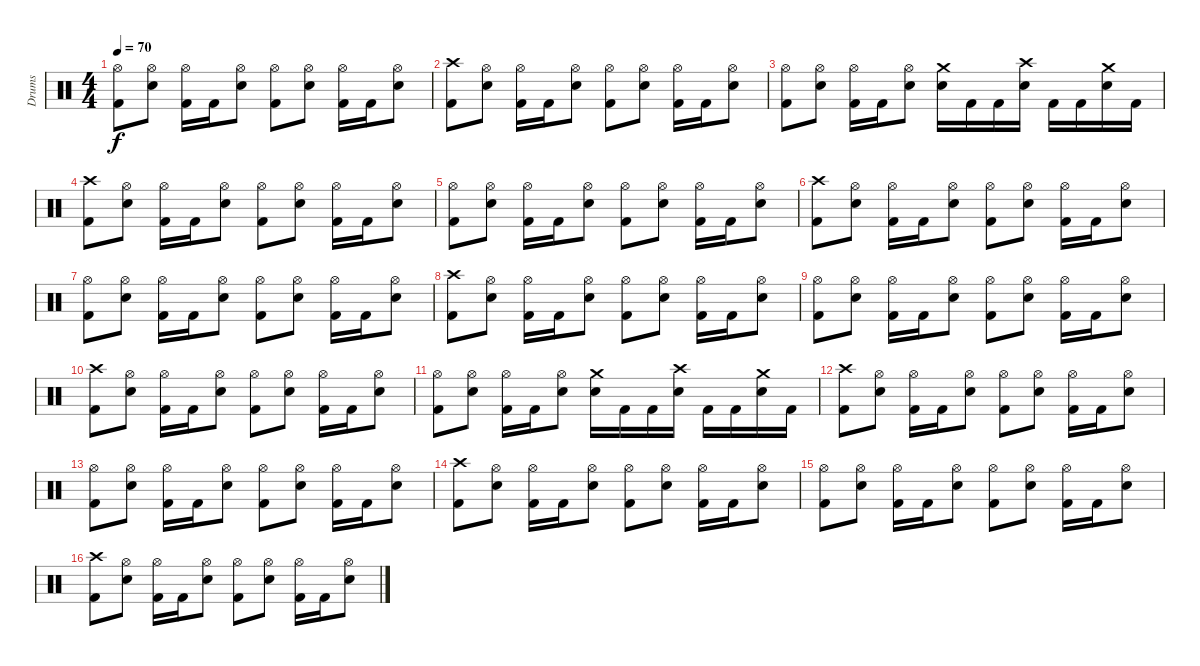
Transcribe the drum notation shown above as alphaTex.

\track ("Drums" "Drums") {instrument percussion}
\staff {score}
\articulation defaults
\ts (4 4)
\tempo 70
\clef neutral
\ks c
("Hi-Hat (open)" "Kick (hit) 2").8{dy f} ("Hi-Hat (open)" "Snare (hit) 2").8 ("Hi-Hat (open)" "Kick (hit) 2").16 "Kick (hit) 2".16 ("Hi-Hat (open)" "Snare (hit) 2").8 ("Hi-Hat (open)" "Kick (hit) 2").8 ("Hi-Hat (open)" "Snare (hit) 2").8 ("Hi-Hat (open)" "Kick (hit) 2").16 "Kick (hit) 2".16 ("Hi-Hat (open)" "Snare (hit) 2").8 |
("Crash high (hit)" "Kick (hit) 2").8 ("Hi-Hat (open)" "Snare (hit) 2").8 ("Hi-Hat (open)" "Kick (hit) 2").16 "Kick (hit) 2".16 ("Hi-Hat (open)" "Snare (hit) 2").8 ("Hi-Hat (open)" "Kick (hit) 2").8 ("Hi-Hat (open)" "Snare (hit) 2").8 ("Hi-Hat (open)" "Kick (hit) 2").16 "Kick (hit) 2".16 ("Hi-Hat (open)" "Snare (hit) 2").8 |
("Hi-Hat (open)" "Kick (hit) 2").8 ("Hi-Hat (open)" "Snare (hit) 2").8 ("Hi-Hat (open)" "Kick (hit) 2").16 "Kick (hit) 2".16 ("Hi-Hat (open)" "Snare (hit) 2").8 ("Crash medium (hit)" "Snare (hit) 2").16 "Kick (hit) 2".16 "Kick (hit) 2".16 ("Crash high (hit)" "Snare (hit) 2").16 "Kick (hit) 2".16 "Kick (hit) 2".16 ("Crash medium (hit)" "Snare (hit) 2").16 "Kick (hit) 2".16 |
("Crash high (hit)" "Kick (hit) 2").8 ("Hi-Hat (open)" "Snare (hit) 2").8 ("Hi-Hat (open)" "Kick (hit) 2").16 "Kick (hit) 2".16 ("Hi-Hat (open)" "Snare (hit) 2").8 ("Hi-Hat (open)" "Kick (hit) 2").8 ("Hi-Hat (open)" "Snare (hit) 2").8 ("Hi-Hat (open)" "Kick (hit) 2").16 "Kick (hit) 2".16 ("Hi-Hat (open)" "Snare (hit) 2").8 |
("Hi-Hat (open)" "Kick (hit) 2").8 ("Hi-Hat (open)" "Snare (hit) 2").8 ("Hi-Hat (open)" "Kick (hit) 2").16 "Kick (hit) 2".16 ("Hi-Hat (open)" "Snare (hit) 2").8 ("Hi-Hat (open)" "Kick (hit) 2").8 ("Hi-Hat (open)" "Snare (hit) 2").8 ("Hi-Hat (open)" "Kick (hit) 2").16 "Kick (hit) 2".16 ("Hi-Hat (open)" "Snare (hit) 2").8 |
("Crash high (hit)" "Kick (hit) 2").8 ("Hi-Hat (open)" "Snare (hit) 2").8 ("Hi-Hat (open)" "Kick (hit) 2").16 "Kick (hit) 2".16 ("Hi-Hat (open)" "Snare (hit) 2").8 ("Hi-Hat (open)" "Kick (hit) 2").8 ("Hi-Hat (open)" "Snare (hit) 2").8 ("Hi-Hat (open)" "Kick (hit) 2").16 "Kick (hit) 2".16 ("Hi-Hat (open)" "Snare (hit) 2").8 |
("Hi-Hat (open)" "Kick (hit) 2").8 ("Hi-Hat (open)" "Snare (hit) 2").8 ("Hi-Hat (open)" "Kick (hit) 2").16 "Kick (hit) 2".16 ("Hi-Hat (open)" "Snare (hit) 2").8 ("Hi-Hat (open)" "Kick (hit) 2").8 ("Hi-Hat (open)" "Snare (hit) 2").8 ("Hi-Hat (open)" "Kick (hit) 2").16 "Kick (hit) 2".16 ("Hi-Hat (open)" "Snare (hit) 2").8 |
("Crash high (hit)" "Kick (hit) 2").8 ("Hi-Hat (open)" "Snare (hit) 2").8 ("Hi-Hat (open)" "Kick (hit) 2").16 "Kick (hit) 2".16 ("Hi-Hat (open)" "Snare (hit) 2").8 ("Hi-Hat (open)" "Kick (hit) 2").8 ("Hi-Hat (open)" "Snare (hit) 2").8 ("Hi-Hat (open)" "Kick (hit) 2").16 "Kick (hit) 2".16 ("Hi-Hat (open)" "Snare (hit) 2").8 |
("Hi-Hat (open)" "Kick (hit) 2").8 ("Hi-Hat (open)" "Snare (hit) 2").8 ("Hi-Hat (open)" "Kick (hit) 2").16 "Kick (hit) 2".16 ("Hi-Hat (open)" "Snare (hit) 2").8 ("Hi-Hat (open)" "Kick (hit) 2").8 ("Hi-Hat (open)" "Snare (hit) 2").8 ("Hi-Hat (open)" "Kick (hit) 2").16 "Kick (hit) 2".16 ("Hi-Hat (open)" "Snare (hit) 2").8 |
("Crash high (hit)" "Kick (hit) 2").8 ("Hi-Hat (open)" "Snare (hit) 2").8 ("Hi-Hat (open)" "Kick (hit) 2").16 "Kick (hit) 2".16 ("Hi-Hat (open)" "Snare (hit) 2").8 ("Hi-Hat (open)" "Kick (hit) 2").8 ("Hi-Hat (open)" "Snare (hit) 2").8 ("Hi-Hat (open)" "Kick (hit) 2").16 "Kick (hit) 2".16 ("Hi-Hat (open)" "Snare (hit) 2").8 |
("Hi-Hat (open)" "Kick (hit) 2").8 ("Hi-Hat (open)" "Snare (hit) 2").8 ("Hi-Hat (open)" "Kick (hit) 2").16 "Kick (hit) 2".16 ("Hi-Hat (open)" "Snare (hit) 2").8 ("Crash medium (hit)" "Snare (hit) 2").16 "Kick (hit) 2".16 "Kick (hit) 2".16 ("Crash high (hit)" "Snare (hit) 2").16 "Kick (hit) 2".16 "Kick (hit) 2".16 ("Crash medium (hit)" "Snare (hit) 2").16 "Kick (hit) 2".16 |
("Crash high (hit)" "Kick (hit) 2").8 ("Hi-Hat (open)" "Snare (hit) 2").8 ("Hi-Hat (open)" "Kick (hit) 2").16 "Kick (hit) 2".16 ("Hi-Hat (open)" "Snare (hit) 2").8 ("Hi-Hat (open)" "Kick (hit) 2").8 ("Hi-Hat (open)" "Snare (hit) 2").8 ("Hi-Hat (open)" "Kick (hit) 2").16 "Kick (hit) 2".16 ("Hi-Hat (open)" "Snare (hit) 2").8 |
("Hi-Hat (open)" "Kick (hit) 2").8 ("Hi-Hat (open)" "Snare (hit) 2").8 ("Hi-Hat (open)" "Kick (hit) 2").16 "Kick (hit) 2".16 ("Hi-Hat (open)" "Snare (hit) 2").8 ("Hi-Hat (open)" "Kick (hit) 2").8 ("Hi-Hat (open)" "Snare (hit) 2").8 ("Hi-Hat (open)" "Kick (hit) 2").16 "Kick (hit) 2".16 ("Hi-Hat (open)" "Snare (hit) 2").8 |
("Crash high (hit)" "Kick (hit) 2").8 ("Hi-Hat (open)" "Snare (hit) 2").8 ("Hi-Hat (open)" "Kick (hit) 2").16 "Kick (hit) 2".16 ("Hi-Hat (open)" "Snare (hit) 2").8 ("Hi-Hat (open)" "Kick (hit) 2").8 ("Hi-Hat (open)" "Snare (hit) 2").8 ("Hi-Hat (open)" "Kick (hit) 2").16 "Kick (hit) 2".16 ("Hi-Hat (open)" "Snare (hit) 2").8 |
("Hi-Hat (open)" "Kick (hit) 2").8 ("Hi-Hat (open)" "Snare (hit) 2").8 ("Hi-Hat (open)" "Kick (hit) 2").16 "Kick (hit) 2".16 ("Hi-Hat (open)" "Snare (hit) 2").8 ("Hi-Hat (open)" "Kick (hit) 2").8 ("Hi-Hat (open)" "Snare (hit) 2").8 ("Hi-Hat (open)" "Kick (hit) 2").16 "Kick (hit) 2".16 ("Hi-Hat (open)" "Snare (hit) 2").8 |
("Crash high (hit)" "Kick (hit) 2").8 ("Hi-Hat (open)" "Snare (hit) 2").8 ("Hi-Hat (open)" "Kick (hit) 2").16 "Kick (hit) 2".16 ("Hi-Hat (open)" "Snare (hit) 2").8 ("Hi-Hat (open)" "Kick (hit) 2").8 ("Hi-Hat (open)" "Snare (hit) 2").8 ("Hi-Hat (open)" "Kick (hit) 2").16 "Kick (hit) 2".16 ("Hi-Hat (open)" "Snare (hit) 2").8
